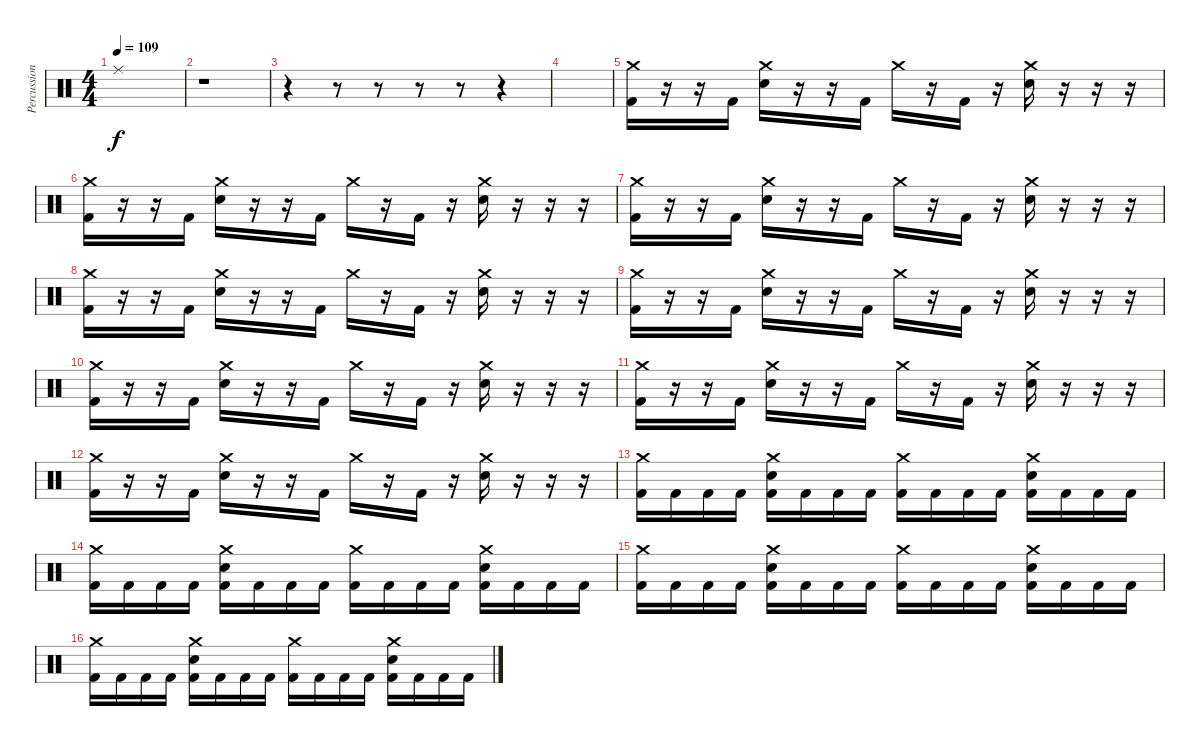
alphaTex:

\track ("Percussion" "Percussion") {instrument percussion}
\staff {score}
\articulation defaults
\ts (4 4)
\tempo 109
\clef neutral
\ks c "Ride (middle)".1{dy f}
|
r.1 |
r.4 r.8 r.8 r.8 r.8 r.4 |
|
("Crash medium (hit)" "Kick (hit) 2").16 r.16 r.16 "Kick (hit) 2".16 ("Crash medium (hit)" "Electric Snare (hit)").16 r.16 r.16 "Kick (hit) 2".16 "Crash medium (hit)".16 r.16 "Kick (hit) 2".16 r.16 ("Crash medium (hit)" "Electric Snare (hit)").16 r.16 r.16 r.16 |
("Crash medium (hit)" "Kick (hit) 2").16 r.16 r.16 "Kick (hit) 2".16 ("Crash medium (hit)" "Electric Snare (hit)").16 r.16 r.16 "Kick (hit) 2".16 "Crash medium (hit)".16 r.16 "Kick (hit) 2".16 r.16 ("Crash medium (hit)" "Electric Snare (hit)").16 r.16 r.16 r.16 |
("Crash medium (hit)" "Kick (hit) 2").16 r.16 r.16 "Kick (hit) 2".16 ("Crash medium (hit)" "Electric Snare (hit)").16 r.16 r.16 "Kick (hit) 2".16 "Crash medium (hit)".16 r.16 "Kick (hit) 2".16 r.16 ("Crash medium (hit)" "Electric Snare (hit)").16 r.16 r.16 r.16 |
("Crash medium (hit)" "Kick (hit) 2").16 r.16 r.16 "Kick (hit) 2".16 ("Crash medium (hit)" "Electric Snare (hit)").16 r.16 r.16 "Kick (hit) 2".16 "Crash medium (hit)".16 r.16 "Kick (hit) 2".16 r.16 ("Crash medium (hit)" "Electric Snare (hit)").16 r.16 r.16 r.16 |
("Crash medium (hit)" "Kick (hit) 2").16 r.16 r.16 "Kick (hit) 2".16 ("Crash medium (hit)" "Electric Snare (hit)").16 r.16 r.16 "Kick (hit) 2".16 "Crash medium (hit)".16 r.16 "Kick (hit) 2".16 r.16 ("Crash medium (hit)" "Electric Snare (hit)").16 r.16 r.16 r.16 |
("Crash medium (hit)" "Kick (hit) 2").16 r.16 r.16 "Kick (hit) 2".16 ("Crash medium (hit)" "Electric Snare (hit)").16 r.16 r.16 "Kick (hit) 2".16 "Crash medium (hit)".16 r.16 "Kick (hit) 2".16 r.16 ("Crash medium (hit)" "Electric Snare (hit)").16 r.16 r.16 r.16 |
("Crash medium (hit)" "Kick (hit) 2").16 r.16 r.16 "Kick (hit) 2".16 ("Crash medium (hit)" "Electric Snare (hit)").16 r.16 r.16 "Kick (hit) 2".16 "Crash medium (hit)".16 r.16 "Kick (hit) 2".16 r.16 ("Crash medium (hit)" "Electric Snare (hit)").16 r.16 r.16 r.16 |
("Crash medium (hit)" "Kick (hit) 2").16 r.16 r.16 "Kick (hit) 2".16 ("Crash medium (hit)" "Electric Snare (hit)").16 r.16 r.16 "Kick (hit) 2".16 "Crash medium (hit)".16 r.16 "Kick (hit) 2".16 r.16 ("Crash medium (hit)" "Electric Snare (hit)").16 r.16 r.16 r.16 |
("Crash medium (hit)" "Kick (hit) 2").16 "Kick (hit) 2".16 "Kick (hit) 2".16 "Kick (hit) 2".16 ("Crash medium (hit)" "Electric Snare (hit)" "Kick (hit) 2").16 "Kick (hit) 2".16 "Kick (hit) 2".16 "Kick (hit) 2".16 ("Crash medium (hit)" "Kick (hit) 2").16 "Kick (hit) 2".16 "Kick (hit) 2".16 "Kick (hit) 2".16 ("Crash medium (hit)" "Electric Snare (hit)" "Kick (hit) 2").16 "Kick (hit) 2".16 "Kick (hit) 2".16 "Kick (hit) 2".16 |
("Crash medium (hit)" "Kick (hit) 2").16 "Kick (hit) 2".16 "Kick (hit) 2".16 "Kick (hit) 2".16 ("Crash medium (hit)" "Electric Snare (hit)" "Kick (hit) 2").16 "Kick (hit) 2".16 "Kick (hit) 2".16 "Kick (hit) 2".16 ("Crash medium (hit)" "Kick (hit) 2").16 "Kick (hit) 2".16 "Kick (hit) 2".16 "Kick (hit) 2".16 ("Crash medium (hit)" "Electric Snare (hit)" "Kick (hit) 2").16 "Kick (hit) 2".16 "Kick (hit) 2".16 "Kick (hit) 2".16 |
("Crash medium (hit)" "Kick (hit) 2").16 "Kick (hit) 2".16 "Kick (hit) 2".16 "Kick (hit) 2".16 ("Crash medium (hit)" "Electric Snare (hit)" "Kick (hit) 2").16 "Kick (hit) 2".16 "Kick (hit) 2".16 "Kick (hit) 2".16 ("Crash medium (hit)" "Kick (hit) 2").16 "Kick (hit) 2".16 "Kick (hit) 2".16 "Kick (hit) 2".16 ("Crash medium (hit)" "Electric Snare (hit)" "Kick (hit) 2").16 "Kick (hit) 2".16 "Kick (hit) 2".16 "Kick (hit) 2".16 |
("Crash medium (hit)" "Kick (hit) 2").16 "Kick (hit) 2".16 "Kick (hit) 2".16 "Kick (hit) 2".16 ("Crash medium (hit)" "Electric Snare (hit)" "Kick (hit) 2").16 "Kick (hit) 2".16 "Kick (hit) 2".16 "Kick (hit) 2".16 ("Crash medium (hit)" "Kick (hit) 2").16 "Kick (hit) 2".16 "Kick (hit) 2".16 "Kick (hit) 2".16 ("Crash medium (hit)" "Electric Snare (hit)" "Kick (hit) 2").16 "Kick (hit) 2".16 "Kick (hit) 2".16 "Kick (hit) 2".16
